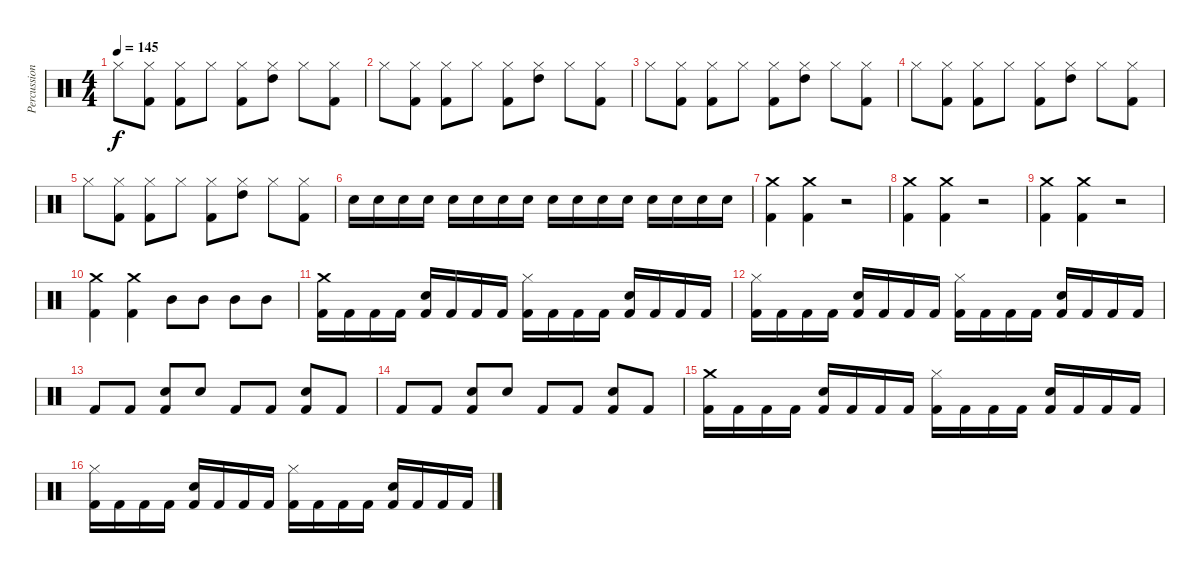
\track ("Percussion" "Percussion") {instrument percussion}
\staff {score}
\articulation defaults
\ts (4 4)
\tempo 145
\clef neutral
\ks c "Hi-Hat (closed)".8{dy f}
("Kick (hit) 2" "Hi-Hat (closed)").8 ("Kick (hit) 2" "Hi-Hat (closed)").8 "Hi-Hat (closed)".8 ("Kick (hit) 2" "Hi-Hat (closed)").8 ("High Tom (hit)" "Hi-Hat (closed)").8 "Hi-Hat (closed)".8 ("Kick (hit) 2" "Hi-Hat (closed)").8 |
"Hi-Hat (closed)".8 ("Kick (hit) 2" "Hi-Hat (closed)").8 ("Kick (hit) 2" "Hi-Hat (closed)").8 "Hi-Hat (closed)".8 ("Kick (hit) 2" "Hi-Hat (closed)").8 ("High Tom (hit)" "Hi-Hat (closed)").8 "Hi-Hat (closed)".8 ("Kick (hit) 2" "Hi-Hat (closed)").8 |
"Hi-Hat (closed)".8 ("Kick (hit) 2" "Hi-Hat (closed)").8 ("Kick (hit) 2" "Hi-Hat (closed)").8 "Hi-Hat (closed)".8 ("Kick (hit) 2" "Hi-Hat (closed)").8 ("High Tom (hit)" "Hi-Hat (closed)").8 "Hi-Hat (closed)".8 ("Kick (hit) 2" "Hi-Hat (closed)").8 |
"Hi-Hat (closed)".8 ("Kick (hit) 2" "Hi-Hat (closed)").8 ("Kick (hit) 2" "Hi-Hat (closed)").8 "Hi-Hat (closed)".8 ("Kick (hit) 2" "Hi-Hat (closed)").8 ("High Tom (hit)" "Hi-Hat (closed)").8 "Hi-Hat (closed)".8 ("Kick (hit) 2" "Hi-Hat (closed)").8 |
"Hi-Hat (closed)".8 ("Kick (hit) 2" "Hi-Hat (closed)").8 ("Kick (hit) 2" "Hi-Hat (closed)").8 "Hi-Hat (closed)".8 ("Kick (hit) 2" "Hi-Hat (closed)").8 ("High Tom (hit)" "Hi-Hat (closed)").8 "Hi-Hat (closed)".8 ("Kick (hit) 2" "Hi-Hat (closed)").8 |
"Snare (hit) 2".16 "Snare (hit) 2".16 "Snare (hit) 2".16 "Snare (hit) 2".16 "Snare (hit) 2".16 "Snare (hit) 2".16 "Snare (hit) 2".16 "Snare (hit) 2".16 "Snare (hit) 2".16 "Snare (hit) 2".16 "Snare (hit) 2".16 "Snare (hit) 2".16 "Snare (hit) 2".16 "Snare (hit) 2".16 "Snare (hit) 2".16 "Snare (hit) 2".16 |
("Kick (hit) 2" "Crash medium (hit)").4 ("Kick (hit) 2" "Crash medium (hit)").4 r.2 |
("Kick (hit) 2" "Crash medium (hit)").4 ("Kick (hit) 2" "Crash medium (hit)").4 r.2 |
("Kick (hit) 2" "Crash medium (hit)").4 ("Kick (hit) 2" "Crash medium (hit)").4 r.2 |
("Kick (hit) 2" "Crash medium (hit)").4 ("Kick (hit) 2" "Crash medium (hit)").4 "Mid Tom (hit)".8 "Mid Tom (hit)".8 "Mid Tom (hit)".8 "Mid Tom (hit)".8 |
("Kick (hit) 2" "Crash medium (hit)").16 "Kick (hit) 2".16 "Kick (hit) 2".16 "Kick (hit) 2".16 ("Kick (hit) 2" "Snare (hit) 2").16 "Kick (hit) 2".16 "Kick (hit) 2".16 "Kick (hit) 2".16 ("Kick (hit) 2" "Hi-Hat (closed)").16 "Kick (hit) 2".16 "Kick (hit) 2".16 "Kick (hit) 2".16 ("Kick (hit) 2" "Snare (hit) 2").16 "Kick (hit) 2".16 "Kick (hit) 2".16 "Kick (hit) 2".16 |
("Kick (hit) 2" "Hi-Hat (closed)").16 "Kick (hit) 2".16 "Kick (hit) 2".16 "Kick (hit) 2".16 ("Kick (hit) 2" "Snare (hit) 2").16 "Kick (hit) 2".16 "Kick (hit) 2".16 "Kick (hit) 2".16 ("Kick (hit) 2" "Hi-Hat (closed)").16 "Kick (hit) 2".16 "Kick (hit) 2".16 "Kick (hit) 2".16 ("Kick (hit) 2" "Snare (hit) 2").16 "Kick (hit) 2".16 "Kick (hit) 2".16 "Kick (hit) 2".16 |
"Kick (hit) 2".8 "Kick (hit) 2".8 ("Kick (hit) 2" "Snare (hit) 2").8 "Snare (hit) 2".8 "Kick (hit) 2".8 "Kick (hit) 2".8 ("Kick (hit) 2" "Snare (hit) 2").8 "Kick (hit) 2".8 |
"Kick (hit) 2".8 "Kick (hit) 2".8 ("Kick (hit) 2" "Snare (hit) 2").8 "Snare (hit) 2".8 "Kick (hit) 2".8 "Kick (hit) 2".8 ("Kick (hit) 2" "Snare (hit) 2").8 "Kick (hit) 2".8 |
("Kick (hit) 2" "Crash medium (hit)").16 "Kick (hit) 2".16 "Kick (hit) 2".16 "Kick (hit) 2".16 ("Kick (hit) 2" "Snare (hit) 2").16 "Kick (hit) 2".16 "Kick (hit) 2".16 "Kick (hit) 2".16 ("Kick (hit) 2" "Hi-Hat (closed)").16 "Kick (hit) 2".16 "Kick (hit) 2".16 "Kick (hit) 2".16 ("Kick (hit) 2" "Snare (hit) 2").16 "Kick (hit) 2".16 "Kick (hit) 2".16 "Kick (hit) 2".16 |
("Kick (hit) 2" "Hi-Hat (closed)").16 "Kick (hit) 2".16 "Kick (hit) 2".16 "Kick (hit) 2".16 ("Kick (hit) 2" "Snare (hit) 2").16 "Kick (hit) 2".16 "Kick (hit) 2".16 "Kick (hit) 2".16 ("Kick (hit) 2" "Hi-Hat (closed)").16 "Kick (hit) 2".16 "Kick (hit) 2".16 "Kick (hit) 2".16 ("Kick (hit) 2" "Snare (hit) 2").16 "Kick (hit) 2".16 "Kick (hit) 2".16 "Kick (hit) 2".16
